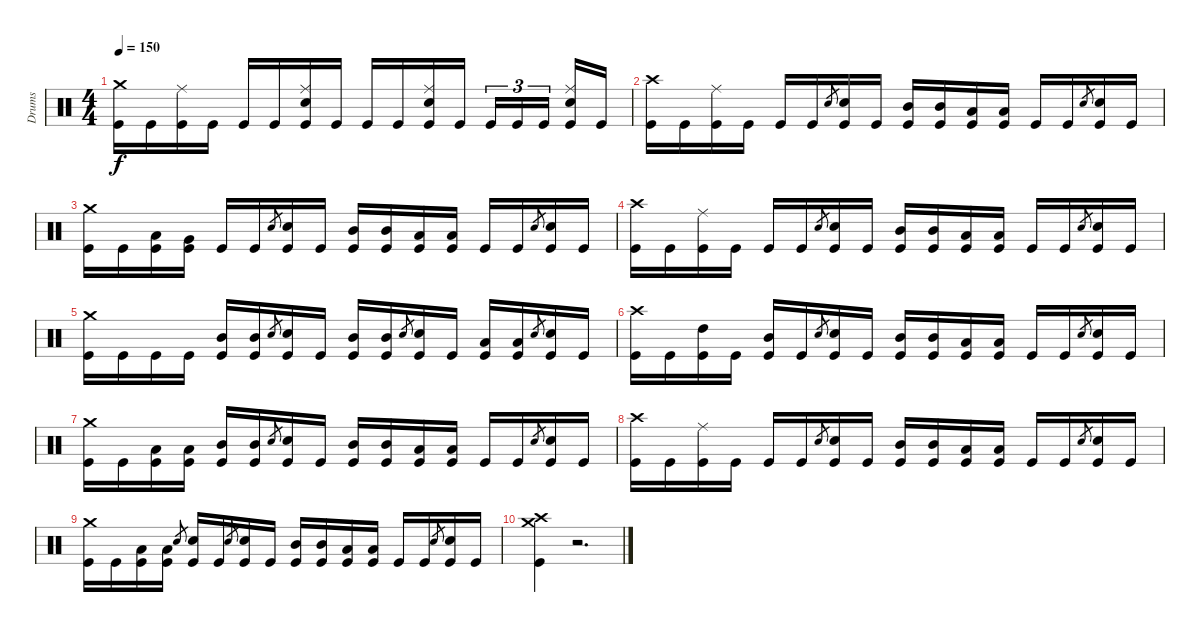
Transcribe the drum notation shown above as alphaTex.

\track ("Drums" "Drums") {instrument percussion}
\staff {score}
\articulation defaults
\ts (4 4)
\tempo 150
\clef neutral
\ks c
("Crash medium (hit)" "Kick (hit)").16{dy f} "Kick (hit)".16 ("Ride (middle)" "Kick (hit)").16 "Kick (hit)".16 "Kick (hit)".16 "Kick (hit)".16 ("Ride (middle)" "Electric Snare (hit)" "Kick (hit)").16 "Kick (hit)".16 "Kick (hit)".16 "Kick (hit)".16 ("Ride (middle)" "Electric Snare (hit)" "Kick (hit)").16 "Kick (hit)".16 "Kick (hit)".16{tu (3 2)} "Kick (hit)".16{tu (3 2)} "Kick (hit)".16{tu (3 2)} ("Ride (middle)" "Electric Snare (hit)" "Kick (hit)").16 "Kick (hit)".16 |
("Crash high (hit)" "Kick (hit)").16 "Kick (hit)".16 ("Ride (middle)" "Kick (hit)").16 "Kick (hit)".16 "Kick (hit)".16 "Kick (hit)".16 "Electric Snare (hit)".8{gr} ("Electric Snare (hit)" "Kick (hit)").16 "Kick (hit)".16 ("Mid Tom (hit)" "Kick (hit)").16 ("Mid Tom (hit)" "Kick (hit)").16 ("Low Tom (hit)" "Kick (hit)").16 ("Low Tom (hit)" "Kick (hit)").16 "Kick (hit)".16 "Kick (hit)".16 "Electric Snare (hit)".8{gr} ("Electric Snare (hit)" "Kick (hit)").16 "Kick (hit)".16 |
("Crash medium (hit)" "Kick (hit)").16 "Kick (hit)".16 ("Low Tom (hit)" "Kick (hit)").16 ("Very Low Tom (hit)" "Kick (hit)").16 "Kick (hit)".16 "Kick (hit)".16 "Electric Snare (hit)".8{gr} ("Electric Snare (hit)" "Kick (hit)").16 "Kick (hit)".16 ("Mid Tom (hit)" "Kick (hit)").16 ("Mid Tom (hit)" "Kick (hit)").16 ("Low Tom (hit)" "Kick (hit)").16 ("Low Tom (hit)" "Kick (hit)").16 "Kick (hit)".16 "Kick (hit)".16 "Electric Snare (hit)".8{gr} ("Electric Snare (hit)" "Kick (hit)").16 "Kick (hit)".16 |
("Crash high (hit)" "Kick (hit)").16 "Kick (hit)".16 ("Ride (middle)" "Kick (hit)").16 "Kick (hit)".16 "Kick (hit)".16 "Kick (hit)".16 "Electric Snare (hit)".8{gr} ("Electric Snare (hit)" "Kick (hit)").16 "Kick (hit)".16 ("Mid Tom (hit)" "Kick (hit)").16 ("Mid Tom (hit)" "Kick (hit)").16 ("Low Tom (hit)" "Kick (hit)").16 ("Low Tom (hit)" "Kick (hit)").16 "Kick (hit)".16 "Kick (hit)".16 "Electric Snare (hit)".8{gr} ("Electric Snare (hit)" "Kick (hit)").16 "Kick (hit)".16 |
("Crash medium (hit)" "Kick (hit)").16 "Kick (hit)".16 "Kick (hit)".16 "Kick (hit)".16 ("Mid Tom (hit)" "Kick (hit)").16 ("Mid Tom (hit)" "Kick (hit)").16 "Electric Snare (hit)".8{gr} ("Electric Snare (hit)" "Kick (hit)").16 "Kick (hit)".16 ("Mid Tom (hit)" "Kick (hit)").16 ("Mid Tom (hit)" "Kick (hit)").16 "Electric Snare (hit)".8{gr} ("Electric Snare (hit)" "Kick (hit)").16 "Kick (hit)".16 ("Low Tom (hit)" "Kick (hit)").16 ("Low Tom (hit)" "Kick (hit)").16 "Electric Snare (hit)".8{gr} ("Electric Snare (hit)" "Kick (hit)").16 "Kick (hit)".16 |
("Crash high (hit)" "Kick (hit)").16 "Kick (hit)".16 ("High Tom (hit)" "Kick (hit)").16 "Kick (hit)".16 ("Mid Tom (hit)" "Kick (hit)").16 "Kick (hit)".16 "Electric Snare (hit)".8{gr} ("Electric Snare (hit)" "Kick (hit)").16 "Kick (hit)".16 ("Mid Tom (hit)" "Kick (hit)").16 ("Mid Tom (hit)" "Kick (hit)").16 ("Low Tom (hit)" "Kick (hit)").16 ("Low Tom (hit)" "Kick (hit)").16 "Kick (hit)".16 "Kick (hit)".16 "Electric Snare (hit)".8{gr} ("Electric Snare (hit)" "Kick (hit)").16 "Kick (hit)".16 |
("Crash medium (hit)" "Kick (hit)").16 "Kick (hit)".16 ("Low Tom (hit)" "Kick (hit)").16 ("Low Tom (hit)" "Kick (hit)").16 ("Mid Tom (hit)" "Kick (hit)").16 ("Mid Tom (hit)" "Kick (hit)").16 "Electric Snare (hit)".8{gr} ("Electric Snare (hit)" "Kick (hit)").16 "Kick (hit)".16 ("Mid Tom (hit)" "Kick (hit)").16 ("Mid Tom (hit)" "Kick (hit)").16 ("Low Tom (hit)" "Kick (hit)").16 ("Low Tom (hit)" "Kick (hit)").16 "Kick (hit)".16 "Kick (hit)".16 "Electric Snare (hit)".8{gr} ("Electric Snare (hit)" "Kick (hit)").16 "Kick (hit)".16 |
("Crash high (hit)" "Kick (hit)").16 "Kick (hit)".16 ("Ride (middle)" "Kick (hit)").16 "Kick (hit)".16 "Kick (hit)".16 "Kick (hit)".16 "Electric Snare (hit)".8{gr} ("Electric Snare (hit)" "Kick (hit)").16 "Kick (hit)".16 ("Mid Tom (hit)" "Kick (hit)").16 ("Mid Tom (hit)" "Kick (hit)").16 ("Low Tom (hit)" "Kick (hit)").16 ("Low Tom (hit)" "Kick (hit)").16 "Kick (hit)".16 "Kick (hit)".16 "Electric Snare (hit)".8{gr} ("Electric Snare (hit)" "Kick (hit)").16 "Kick (hit)".16 |
("Crash medium (hit)" "Kick (hit)").16 "Kick (hit)".16 ("Low Tom (hit)" "Kick (hit)").16 ("Low Tom (hit)" "Kick (hit)").16 "Electric Snare (hit)".8{gr} ("Electric Snare (hit)" "Kick (hit)").16 "Kick (hit)".16 "Electric Snare (hit)".8{gr} ("Electric Snare (hit)" "Kick (hit)").16 "Kick (hit)".16 ("Mid Tom (hit)" "Kick (hit)").16 ("Mid Tom (hit)" "Kick (hit)").16 ("Low Tom (hit)" "Kick (hit)").16 ("Low Tom (hit)" "Kick (hit)").16 "Kick (hit)".16 "Kick (hit)".16 "Electric Snare (hit)".8{gr} ("Electric Snare (hit)" "Kick (hit)").16 "Kick (hit)".16 |
("Crash medium (hit)" "Crash high (hit)" "Kick (hit)").4 r.2{d}
